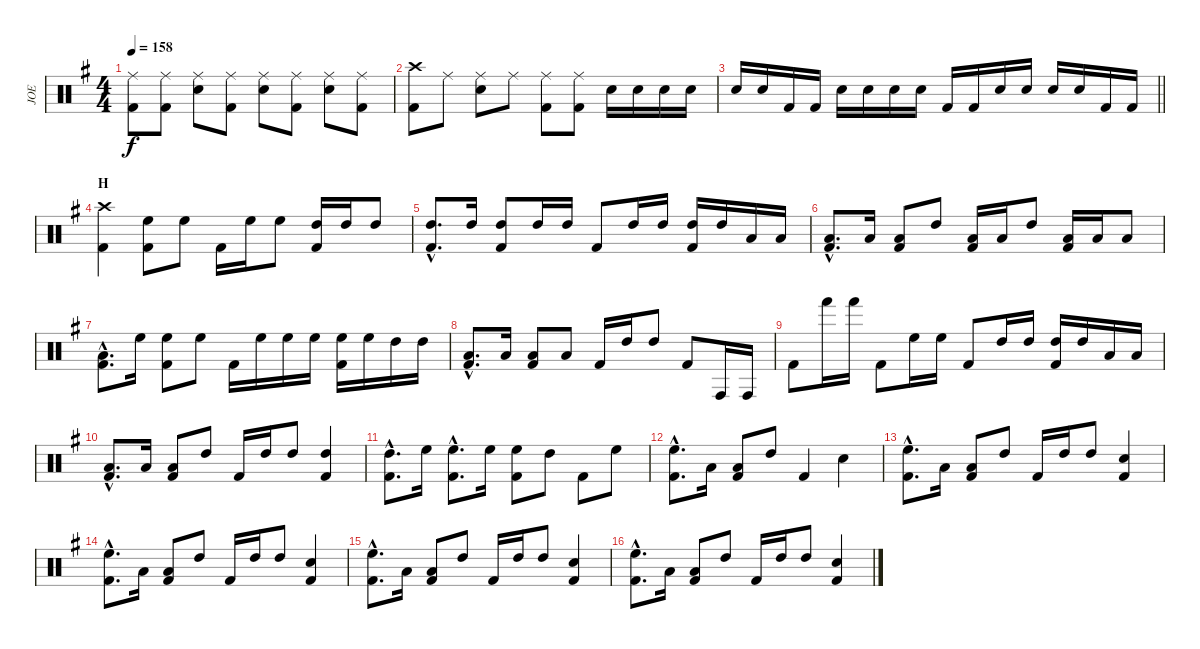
\track ("JOE" "JOE") {instrument percussion}
\staff {score}
\articulation defaults
\ts (4 4)
\tempo 158
\clef neutral
\ks g
("Ride (middle)" "Kick (hit) 2").8{dy f} ("Ride (middle)" "Kick (hit) 2").8 ("Ride (middle)" "Snare (hit) 2").8 ("Ride (middle)" "Kick (hit) 2").8 ("Ride (middle)" "Snare (hit) 2").8 ("Ride (middle)" "Kick (hit) 2").8 ("Ride (middle)" "Snare (hit) 2").8 ("Ride (middle)" "Kick (hit) 2").8 |
("Crash high (hit)" "Kick (hit) 2").8 "Ride (middle)".8 ("Ride (middle)" "Snare (hit) 2").8 "Ride (middle)".8 ("Ride (middle)" "Kick (hit) 2").8 ("Ride (middle)" "Kick (hit) 2").8 "Snare (hit) 2".16 "Snare (hit) 2".16 "Snare (hit) 2".16 "Snare (hit) 2".16 |
\barLineRight lightlight "Snare (hit) 2".16 "Snare (hit) 2".16 "Kick (hit) 2".16 "Kick (hit) 2".16 "Snare (hit) 2".16 "Snare (hit) 2".16 "Snare (hit) 2".16 "Snare (hit) 2".16 "Kick (hit) 2".16 "Kick (hit) 2".16 "Snare (hit) 2".16 "Snare (hit) 2".16 "Snare (hit) 2".16 "Snare (hit) 2".16 "Kick (hit) 2".16 "Kick (hit) 2".16
|
\section ("" "H")
("Crash high (hit)" "Kick (hit) 2").4 ("High Floor Tom (hit)" "Kick (hit) 2").8 "High Floor Tom (hit)".8 "Kick (hit) 2".16 "High Floor Tom (hit)".16 "High Floor Tom (hit)".8 ("High Tom (hit)" "Kick (hit) 2").16 "High Tom (hit)".16 "High Tom (hit)".8 |
("High Tom (hit)"{hac} "Kick (hit) 2"{hac}).8{d} "High Tom (hit)".16 ("High Tom (hit)" "Kick (hit) 2").8 "High Tom (hit)".16 "High Tom (hit)".16 "Kick (hit) 2".8 "High Tom (hit)".16 "High Tom (hit)".16 ("High Tom (hit)" "Kick (hit) 2").16 "High Tom (hit)".16 "Low Tom (hit)".16 "Low Tom (hit)".16 |
("Low Tom (hit)"{hac} "Kick (hit) 2"{hac}).8{d} "Low Tom (hit)".16 ("Low Tom (hit)" "Kick (hit) 2").8 "High Tom (hit)".8 ("Low Tom (hit)" "Kick (hit) 2").16 "Low Tom (hit)".16 "High Tom (hit)".8 ("Low Tom (hit)" "Kick (hit) 2").16 "Low Tom (hit)".16 "Low Tom (hit)".8 |
("Low Tom (hit)"{hac} "Kick (hit) 2"{hac}).8{d} "High Floor Tom (hit)".16 ("High Floor Tom (hit)" "Kick (hit) 2").8 "High Floor Tom (hit)".8 "Kick (hit) 2".16 "High Floor Tom (hit)".16 "High Floor Tom (hit)".16 "High Floor Tom (hit)".16 ("High Floor Tom (hit)" "Kick (hit) 2").16 "High Floor Tom (hit)".16 "High Tom (hit)".16 "High Tom (hit)".16 |
("Low Tom (hit)"{hac} "Kick (hit) 2"{hac}).8{d} "Low Tom (hit)".16 ("Low Tom (hit)" "Kick (hit) 2").8 "Low Tom (hit)".8 "Kick (hit) 2".16 "High Tom (hit)".16 "High Tom (hit)".8 "Kick (hit) 2".8 "Conga high (hit)".16 "Conga high (hit)".16 |
"Kick (hit) 2".8 "Hand (hit)".16 "Hand (hit)".16 "Kick (hit) 2".8 "High Floor Tom (hit)".16 "High Floor Tom (hit)".16 "Kick (hit) 2".8 "High Tom (hit)".16 "High Tom (hit)".16 ("High Tom (hit)" "Kick (hit) 2").16 "High Tom (hit)".16 "Low Tom (hit)".16 "Low Tom (hit)".16 |
("Low Tom (hit)"{hac} "Kick (hit) 2"{hac}).8{d} "Low Tom (hit)".16 ("Low Tom (hit)" "Kick (hit) 2").8 "High Tom (hit)".8 "Kick (hit) 2".16 "High Tom (hit)".16 "High Tom (hit)".8 ("High Tom (hit)" "Kick (hit) 2").4 |
("High Tom (hit)"{hac} "Kick (hit) 2"{hac}).8{d} "High Floor Tom (hit)".16 ("High Floor Tom (hit)"{hac} "Kick (hit) 2"{hac}).8{d} "High Floor Tom (hit)".16 ("High Floor Tom (hit)" "Kick (hit) 2").8 "High Tom (hit)".8 "Kick (hit) 2".8 "High Floor Tom (hit)".8 |
("High Floor Tom (hit)"{hac} "Kick (hit) 2"{hac}).8{d} "Low Tom (hit)".16 ("Low Tom (hit)" "Kick (hit) 2").8 "High Tom (hit)".8 "Kick (hit) 2".4 "Snare (hit) 2".4 |
("High Floor Tom (hit)"{hac} "Kick (hit) 2"{hac}).8{d} "Low Tom (hit)".16 ("Low Tom (hit)" "Kick (hit) 2").8 "High Tom (hit)".8 "Kick (hit) 2".16 "High Tom (hit)".16 "High Tom (hit)".8 ("Snare (hit) 2" "Kick (hit) 2").4 |
("High Floor Tom (hit)"{hac} "Kick (hit) 2"{hac}).8{d} "Low Tom (hit)".16 ("Low Tom (hit)" "Kick (hit) 2").8 "High Tom (hit)".8 "Kick (hit) 2".16 "High Tom (hit)".16 "High Tom (hit)".8 ("Snare (hit) 2" "Kick (hit) 2").4 |
("High Floor Tom (hit)"{hac} "Kick (hit) 2"{hac}).8{d} "Low Tom (hit)".16 ("Low Tom (hit)" "Kick (hit) 2").8 "High Tom (hit)".8 "Kick (hit) 2".16 "High Tom (hit)".16 "High Tom (hit)".8 ("Snare (hit) 2" "Kick (hit) 2").4 |
("High Floor Tom (hit)"{hac} "Kick (hit) 2"{hac}).8{d} "Low Tom (hit)".16 ("Low Tom (hit)" "Kick (hit) 2").8 "High Tom (hit)".8 "Kick (hit) 2".16 "High Tom (hit)".16 "High Tom (hit)".8 ("Snare (hit) 2" "Kick (hit) 2").4
